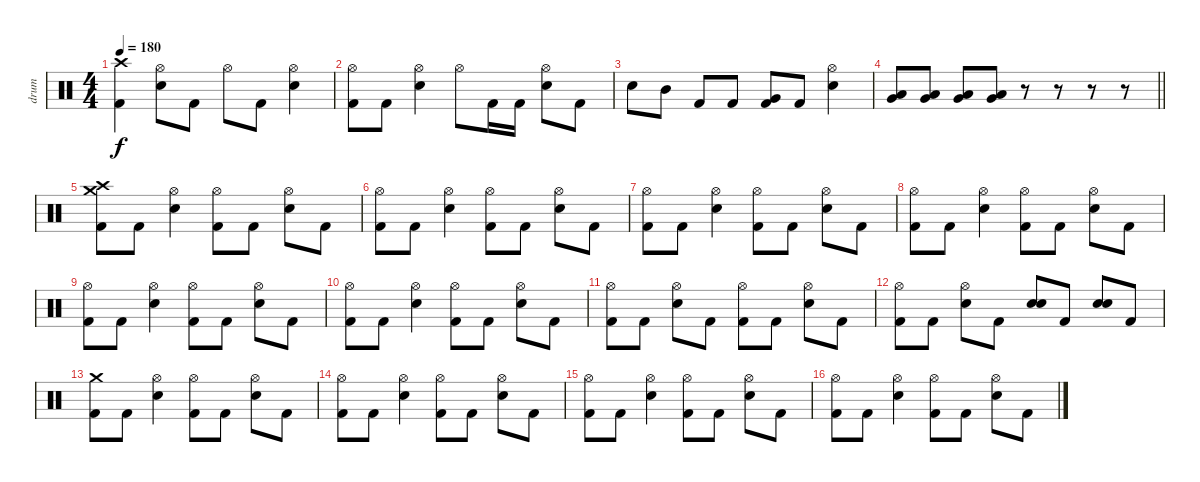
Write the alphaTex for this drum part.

\track ("drum" "drum") {instrument percussion}
\staff {score}
\articulation defaults
\ts (4 4)
\tempo 180
\clef neutral
\ks c
("Crash high (hit)" "Kick (hit) 2").4{dy f} ("Hi-Hat (open)" "Snare (hit) 2").8 "Kick (hit) 2".8 "Hi-Hat (open)".8 "Kick (hit) 2".8 ("Hi-Hat (open)" "Snare (hit) 2").4 |
("Hi-Hat (open)" "Kick (hit) 2").8 "Kick (hit) 2".8 ("Hi-Hat (open)" "Snare (hit) 2").4 "Hi-Hat (open)".8 "Kick (hit) 2".16 "Kick (hit) 2".16 ("Hi-Hat (open)" "Snare (hit) 2").8 "Kick (hit) 2".8 |
"Snare (hit) 2".8 "Mid Tom (hit)".8 "Kick (hit) 2".8 "Kick (hit) 2".8 ("Very Low Tom (hit)" "Kick (hit) 2").8 "Kick (hit) 2".8 ("Hi-Hat (open)" "Snare (hit) 2").4 |
\barLineRight lightlight
("Low Tom (hit)" "Very Low Tom (hit)").8 ("Low Tom (hit)" "Very Low Tom (hit)").8 ("Low Tom (hit)" "Very Low Tom (hit)").8 ("Low Tom (hit)" "Very Low Tom (hit)").8 r.8 r.8 r.8 r.8 |
("Crash medium (hit)" "Crash high (hit)" "Kick (hit) 2").8 "Kick (hit) 2".8 ("Hi-Hat (open)" "Snare (hit) 2").4 ("Hi-Hat (open)" "Kick (hit) 2").8 "Kick (hit) 2".8 ("Hi-Hat (open)" "Snare (hit) 2").8 "Kick (hit) 2".8 |
("Hi-Hat (open)" "Kick (hit) 2").8 "Kick (hit) 2".8 ("Hi-Hat (open)" "Snare (hit) 2").4 ("Hi-Hat (open)" "Kick (hit) 2").8 "Kick (hit) 2".8 ("Hi-Hat (open)" "Snare (hit) 2").8 "Kick (hit) 2".8 |
("Hi-Hat (open)" "Kick (hit) 2").8 "Kick (hit) 2".8 ("Hi-Hat (open)" "Snare (hit) 2").4 ("Hi-Hat (open)" "Kick (hit) 2").8 "Kick (hit) 2".8 ("Hi-Hat (open)" "Snare (hit) 2").8 "Kick (hit) 2".8 |
("Hi-Hat (open)" "Kick (hit) 2").8 "Kick (hit) 2".8 ("Hi-Hat (open)" "Snare (hit) 2").4 ("Hi-Hat (open)" "Kick (hit) 2").8 "Kick (hit) 2".8 ("Hi-Hat (open)" "Snare (hit) 2").8 "Kick (hit) 2".8 |
("Hi-Hat (open)" "Kick (hit) 2").8 "Kick (hit) 2".8 ("Hi-Hat (open)" "Snare (hit) 2").4 ("Hi-Hat (open)" "Kick (hit) 2").8 "Kick (hit) 2".8 ("Hi-Hat (open)" "Snare (hit) 2").8 "Kick (hit) 2".8 |
("Hi-Hat (open)" "Kick (hit) 2").8 "Kick (hit) 2".8 ("Hi-Hat (open)" "Snare (hit) 2").4 ("Hi-Hat (open)" "Kick (hit) 2").8 "Kick (hit) 2".8 ("Hi-Hat (open)" "Snare (hit) 2").8 "Kick (hit) 2".8 |
("Hi-Hat (open)" "Kick (hit) 2").8 "Kick (hit) 2".8 ("Hi-Hat (open)" "Snare (hit) 2").8 "Kick (hit) 2".8 ("Hi-Hat (open)" "Kick (hit) 2").8 "Kick (hit) 2".8 ("Hi-Hat (open)" "Snare (hit) 2").8 "Kick (hit) 2".8 |
("Hi-Hat (open)" "Kick (hit) 2").8 "Kick (hit) 2".8 ("Hi-Hat (open)" "Snare (hit) 2").8 "Kick (hit) 2".8 ("Snare (hit) 2" "Snare (hit) 2").8 "Kick (hit) 2".8 ("Snare (hit) 2" "Snare (hit) 2").8 "Kick (hit) 2".8 |
("Crash medium (hit)" "Kick (hit) 2").8 "Kick (hit) 2".8 ("Hi-Hat (open)" "Snare (hit) 2").4 ("Hi-Hat (open)" "Kick (hit) 2").8 "Kick (hit) 2".8 ("Hi-Hat (open)" "Snare (hit) 2").8 "Kick (hit) 2".8 |
("Hi-Hat (open)" "Kick (hit) 2").8 "Kick (hit) 2".8 ("Hi-Hat (open)" "Snare (hit) 2").4 ("Hi-Hat (open)" "Kick (hit) 2").8 "Kick (hit) 2".8 ("Hi-Hat (open)" "Snare (hit) 2").8 "Kick (hit) 2".8 |
("Hi-Hat (open)" "Kick (hit) 2").8 "Kick (hit) 2".8 ("Hi-Hat (open)" "Snare (hit) 2").4 ("Hi-Hat (open)" "Kick (hit) 2").8 "Kick (hit) 2".8 ("Hi-Hat (open)" "Snare (hit) 2").8 "Kick (hit) 2".8 |
("Hi-Hat (open)" "Kick (hit) 2").8 "Kick (hit) 2".8 ("Hi-Hat (open)" "Snare (hit) 2").4 ("Hi-Hat (open)" "Kick (hit) 2").8 "Kick (hit) 2".8 ("Hi-Hat (open)" "Snare (hit) 2").8 "Kick (hit) 2".8
